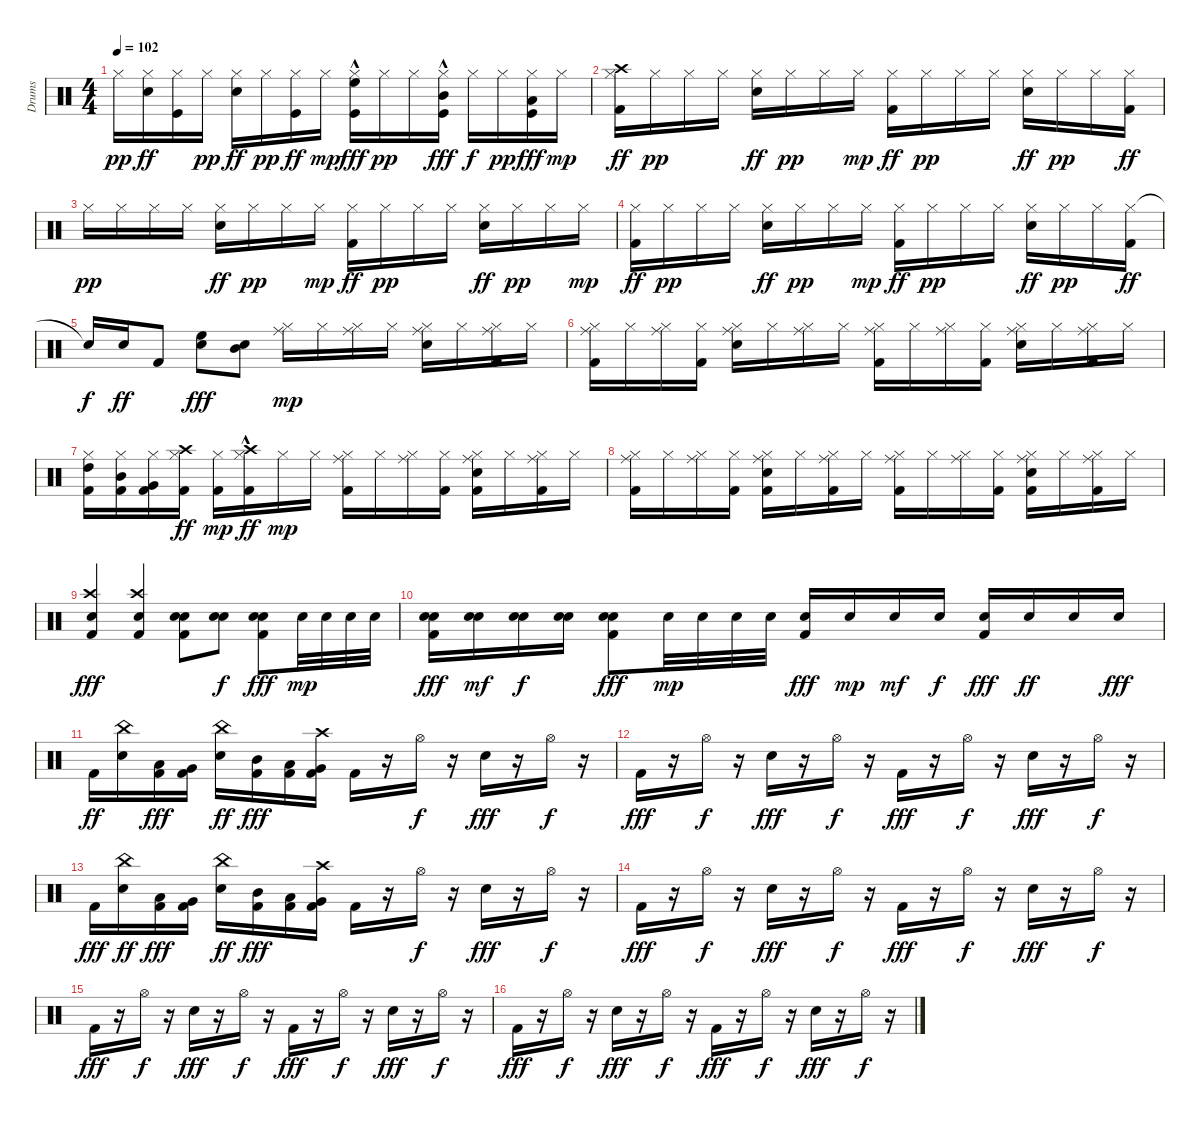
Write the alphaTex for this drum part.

\track ("Drums" "Drums") {instrument percussion}
\staff {score}
\articulation defaults
\ts (4 4)
\tempo 102
\clef neutral
\ks c "Hi-Hat (closed)".16{dy pp}
("Hi-Hat (closed)" "Snare (hit) 2").16{dy ff} ("Hi-Hat (closed)" "Kick (hit)").16 "Hi-Hat (closed)".16{dy pp} ("Hi-Hat (closed)" "Snare (hit) 2").16{dy ff} "Hi-Hat (closed)".16{dy pp} ("Hi-Hat (closed)" "Kick (hit)").16{dy ff} "Hi-Hat (closed)".16{dy mp} ("Hi-Hat (closed)" "High Floor Tom (hit)"{hac} "Kick (hit)").16{dy fff} "Hi-Hat (closed)".16{dy pp} "Hi-Hat (closed)".16 ("Hi-Hat (closed)" "Mid Tom (hit)"{hac} "Kick (hit)").16{dy fff} "Hi-Hat (closed)".16{dy f} "Hi-Hat (closed)".16{dy pp} ("Hi-Hat (closed)" "Low Tom (hit)" "Kick (hit)").16{dy fff} "Hi-Hat (closed)".16{dy mp} |
("Hi-Hat (closed)" "Crash high (hit)" "Kick (hit) 2").16{dy ff} "Hi-Hat (closed)".16{dy pp} "Hi-Hat (closed)".16 "Hi-Hat (closed)".16 ("Hi-Hat (closed)" "Snare (hit) 2").16{dy ff} "Hi-Hat (closed)".16{dy pp} "Hi-Hat (closed)".16 "Hi-Hat (closed)".16{dy mp} ("Hi-Hat (closed)" "Kick (hit) 2").16{dy ff} "Hi-Hat (closed)".16{dy pp} "Hi-Hat (closed)".16 "Hi-Hat (closed)".16 ("Hi-Hat (closed)" "Snare (hit) 2").16{dy ff} "Hi-Hat (closed)".16{dy pp} "Hi-Hat (closed)".16 ("Hi-Hat (closed)" "Kick (hit) 2").16{dy ff} |
"Hi-Hat (closed)".16{dy pp} "Hi-Hat (closed)".16 "Hi-Hat (closed)".16 "Hi-Hat (closed)".16 ("Hi-Hat (closed)" "Snare (hit) 2").16{dy ff} "Hi-Hat (closed)".16{dy pp} "Hi-Hat (closed)".16 "Hi-Hat (closed)".16{dy mp} ("Hi-Hat (closed)" "Kick (hit) 2").16{dy ff} "Hi-Hat (closed)".16{dy pp} "Hi-Hat (closed)".16 "Hi-Hat (closed)".16 ("Hi-Hat (closed)" "Snare (hit) 2").16{dy ff} "Hi-Hat (closed)".16{dy pp} "Hi-Hat (closed)".16 "Hi-Hat (closed)".16{dy mp} |
("Hi-Hat (closed)" "Kick (hit) 2").16{dy ff} "Hi-Hat (closed)".16{dy pp} "Hi-Hat (closed)".16 "Hi-Hat (closed)".16 ("Hi-Hat (closed)" "Snare (hit) 2").16{dy ff} "Hi-Hat (closed)".16{dy pp} "Hi-Hat (closed)".16 "Hi-Hat (closed)".16{dy mp} ("Hi-Hat (closed)" "Kick (hit) 2").16{dy ff} "Hi-Hat (closed)".16{dy pp} "Hi-Hat (closed)".16 "Hi-Hat (closed)".16 ("Hi-Hat (closed)" "Snare (hit) 2").16{dy ff} "Hi-Hat (closed)".16{dy pp} "Hi-Hat (closed)".16 ("Hi-Hat (closed)" "Kick (hit) 2").16{dy ff} |
"Snare (hit)"{t}.16{dy f} "Snare (hit) 2".16{dy ff} "Kick (hit) 2".8 ("Snare (hit) 2" "High Floor Tom (hit)").8{dy fff} ("Snare (hit) 2" "Mid Tom (hit)").8 ("Ride (middle)" "Hi-Hat (closed)").16{dy mp} "Hi-Hat (closed)".16 ("Ride (middle)" "Hi-Hat (closed)").16 "Hi-Hat (closed)".16 ("Snare (hit) 2" "Ride (middle)" "Hi-Hat (closed)").16 "Hi-Hat (closed)".16 ("Ride (middle)" "Kick (hit) 2" "Hi-Hat (closed)").16 "Hi-Hat (closed)".16 |
("Ride (middle)" "Kick (hit) 2" "Hi-Hat (closed)").16 "Hi-Hat (closed)".16 ("Ride (middle)" "Hi-Hat (closed)").16 ("Kick (hit) 2" "Hi-Hat (closed)").16 ("Ride (middle)" "Snare (hit) 2" "Hi-Hat (closed)").16 "Hi-Hat (closed)".16 ("Ride (middle)" "Hi-Hat (closed)").16 "Hi-Hat (closed)".16 ("Ride (middle)" "Kick (hit) 2" "Hi-Hat (closed)").16 "Hi-Hat (closed)".16 ("Ride (middle)" "Hi-Hat (closed)").16 ("Kick (hit) 2" "Hi-Hat (closed)").16 ("Ride (middle)" "Snare (hit) 2" "Hi-Hat (closed)").16 "Hi-Hat (closed)".16 ("Ride (middle)" "Kick (hit) 2" "Hi-Hat (closed)").16 "Hi-Hat (closed)".16 |
("Kick (hit) 2" "High Tom (hit)" "Hi-Hat (closed)").16 ("Kick (hit) 2" "Mid Tom (hit)" "Hi-Hat (closed)").16 ("Kick (hit) 2" "Very Low Tom (hit)" "Hi-Hat (closed)").16 ("Kick (hit) 2" "Hi-Hat (closed)" "Crash high (hit)").16{dy ff} ("Kick (hit) 2" "Hi-Hat (closed)").16{dy mp} ("Kick (hit) 2"{hac} "Hi-Hat (closed)" "Crash high (hit)"{hac}).16{dy ff} "Hi-Hat (closed)".16{dy mp} "Hi-Hat (closed)".16 ("Kick (hit) 2" "Ride (middle)" "Hi-Hat (closed)").16 "Hi-Hat (closed)".16 ("Ride (middle)" "Hi-Hat (closed)").16 ("Kick (hit) 2" "Hi-Hat (closed)").16 ("Snare (hit) 2" "Ride (middle)" "Kick (hit) 2" "Hi-Hat (closed)").16 "Hi-Hat (closed)".16 ("Ride (middle)" "Kick (hit) 2" "Hi-Hat (closed)").16 "Hi-Hat (closed)".16 |
("Ride (middle)" "Kick (hit) 2" "Hi-Hat (closed)").16 "Hi-Hat (closed)".16 ("Ride (middle)" "Hi-Hat (closed)").16 ("Kick (hit) 2" "Hi-Hat (closed)").16 ("Ride (middle)" "Snare (hit) 2" "Kick (hit) 2" "Hi-Hat (closed)").16 "Hi-Hat (closed)".16 ("Ride (middle)" "Kick (hit) 2" "Hi-Hat (closed)").16 "Hi-Hat (closed)".16 ("Ride (middle)" "Kick (hit) 2" "Hi-Hat (closed)").16 "Hi-Hat (closed)".16 ("Ride (middle)" "Hi-Hat (closed)").16 ("Kick (hit) 2" "Hi-Hat (closed)").16 ("Ride (middle)" "Snare (hit) 2" "Kick (hit) 2" "Hi-Hat (closed)").16 "Hi-Hat (closed)".16 ("Ride (middle)" "Kick (hit) 2" "Hi-Hat (closed)").16 "Hi-Hat (closed)".16 |
("Crash high (hit)" "Kick (hit) 2" "Snare (hit) 2").4{dy fff} ("Crash high (hit)" "Kick (hit) 2" "Snare (hit) 2").4 ("Snare (hit) 2" "Kick (hit) 2" "Electric Snare (hit)").8 ("Snare (hit) 2" "Electric Snare (hit)").8{dy f} ("Snare (hit) 2" "Kick (hit) 2" "Electric Snare (hit)").8{dy fff} "Snare (hit) 2".32{dy mp} "Snare (hit) 2".32 "Snare (hit) 2".32 "Snare (hit) 2".32 |
("Snare (hit) 2" "Kick (hit) 2" "Electric Snare (hit)").16{dy fff} ("Snare (hit) 2" "Electric Snare (hit)").16{dy mf} ("Snare (hit) 2" "Electric Snare (hit)").16{dy f} ("Snare (hit) 2" "Electric Snare (hit)").16 ("Kick (hit) 2" "Snare (hit) 2" "Electric Snare (hit)").8{dy fff} "Snare (hit) 2".32{dy mp} "Snare (hit) 2".32 "Snare (hit) 2".32 "Snare (hit) 2".32 ("Snare (hit) 2" "Kick (hit) 2").16{dy fff} "Snare (hit) 2".16{dy mp} "Snare (hit) 2".16{dy mf} "Snare (hit) 2".16{dy f} ("Snare (hit) 2" "Kick (hit) 2").16{dy fff} "Snare (hit) 2".16{dy ff} "Snare (hit) 2".16 "Snare (hit) 2".16{dy fff} |
"Kick (hit) 2".16{dy ff} ("Snare (hit) 2" "China (hit)").16 ("Kick (hit) 2" "Low Tom (hit)").16{dy fff} ("Kick (hit) 2" "Very Low Tom (hit)").16 ("Snare (hit) 2" "China (hit)").16{dy ff} ("Kick (hit) 2" "Mid Tom (hit)").16{dy fff} ("Kick (hit) 2" "Low Tom (hit)").16 ("Kick (hit) 2" "Very Low Tom (hit)" "Crash high (hit)").16 "Kick (hit) 2".16 r.16 "Hi-Hat (open)".16{dy f} r.16 "Snare (hit) 2".16{dy fff} r.16 "Hi-Hat (open)".16{dy f} r.16 |
"Kick (hit) 2".16{dy fff} r.16 "Hi-Hat (open)".16{dy f} r.16 "Snare (hit) 2".16{dy fff} r.16 "Hi-Hat (open)".16{dy f} r.16 "Kick (hit) 2".16{dy fff} r.16 "Hi-Hat (open)".16{dy f} r.16 "Snare (hit) 2".16{dy fff} r.16 "Hi-Hat (open)".16{dy f} r.16 |
"Kick (hit) 2".16{dy fff} ("Snare (hit) 2" "China (hit)").16{dy ff} ("Kick (hit) 2" "Low Tom (hit)").16{dy fff} ("Kick (hit) 2" "Very Low Tom (hit)").16 ("Snare (hit) 2" "China (hit)").16{dy ff} ("Kick (hit) 2" "Mid Tom (hit)").16{dy fff} ("Kick (hit) 2" "Low Tom (hit)").16 ("Kick (hit) 2" "Very Low Tom (hit)" "Crash high (hit)").16 "Kick (hit) 2".16 r.16 "Hi-Hat (open)".16{dy f} r.16 "Snare (hit) 2".16{dy fff} r.16 "Hi-Hat (open)".16{dy f} r.16 |
"Kick (hit) 2".16{dy fff} r.16 "Hi-Hat (open)".16{dy f} r.16 "Snare (hit) 2".16{dy fff} r.16 "Hi-Hat (open)".16{dy f} r.16 "Kick (hit) 2".16{dy fff} r.16 "Hi-Hat (open)".16{dy f} r.16 "Snare (hit) 2".16{dy fff} r.16 "Hi-Hat (open)".16{dy f} r.16 |
"Kick (hit) 2".16{dy fff} r.16 "Hi-Hat (open)".16{dy f} r.16 "Snare (hit) 2".16{dy fff} r.16 "Hi-Hat (open)".16{dy f} r.16 "Kick (hit) 2".16{dy fff} r.16 "Hi-Hat (open)".16{dy f} r.16 "Snare (hit) 2".16{dy fff} r.16 "Hi-Hat (open)".16{dy f} r.16 |
"Kick (hit) 2".16{dy fff} r.16 "Hi-Hat (open)".16{dy f} r.16 "Snare (hit) 2".16{dy fff} r.16 "Hi-Hat (open)".16{dy f} r.16 "Kick (hit) 2".16{dy fff} r.16 "Hi-Hat (open)".16{dy f} r.16 "Snare (hit) 2".16{dy fff} r.16 "Hi-Hat (open)".16{dy f} r.16
